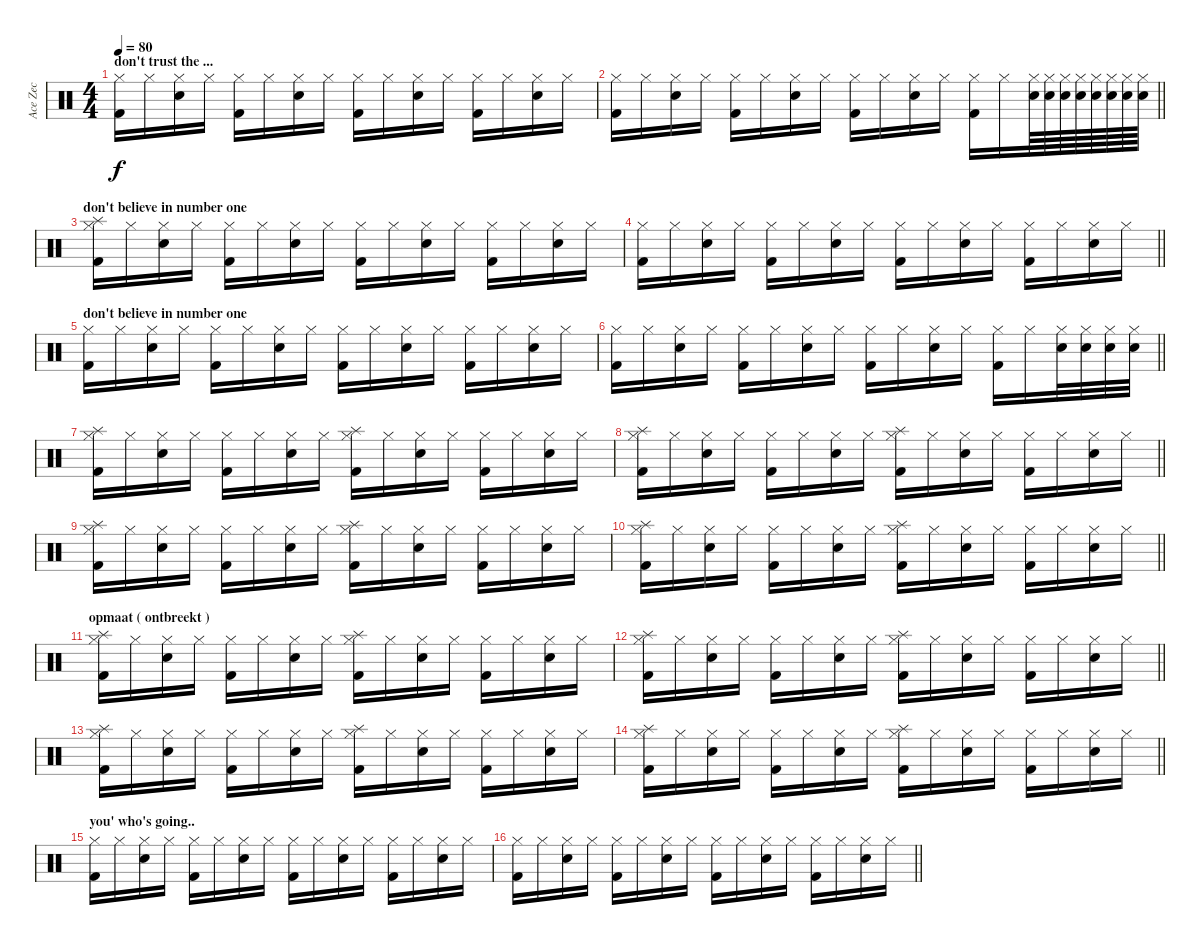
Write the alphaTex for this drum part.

\track ("Ace Zec" "Ace Zec") {instrument percussion}
\staff {score}
\articulation defaults
\ts (4 4)
\section ("" "don't trust the ...")
\tempo 80
\clef neutral
\ks c
("Hi-Hat (closed)" "Kick (hit) 2").16{dy f} "Hi-Hat (closed)".16 ("Hi-Hat (closed)" "Snare (hit) 2").16 "Hi-Hat (closed)".16 ("Hi-Hat (closed)" "Kick (hit) 2").16 "Hi-Hat (closed)".16 ("Hi-Hat (closed)" "Snare (hit) 2").16 "Hi-Hat (closed)".16 ("Hi-Hat (closed)" "Kick (hit) 2").16 "Hi-Hat (closed)".16 ("Hi-Hat (closed)" "Snare (hit) 2").16 "Hi-Hat (closed)".16 ("Hi-Hat (closed)" "Kick (hit) 2").16 "Hi-Hat (closed)".16 ("Hi-Hat (closed)" "Snare (hit) 2").16 "Hi-Hat (closed)".16 |
\barLineRight lightlight
("Hi-Hat (closed)" "Kick (hit) 2").16 "Hi-Hat (closed)".16 ("Hi-Hat (closed)" "Snare (hit) 2").16 "Hi-Hat (closed)".16 ("Hi-Hat (closed)" "Kick (hit) 2").16 "Hi-Hat (closed)".16 ("Hi-Hat (closed)" "Snare (hit) 2").16 "Hi-Hat (closed)".16 ("Hi-Hat (closed)" "Kick (hit) 2").16 "Hi-Hat (closed)".16 ("Hi-Hat (closed)" "Snare (hit) 2").16 "Hi-Hat (closed)".16 ("Hi-Hat (closed)" "Kick (hit) 2").16 "Hi-Hat (closed)".16 ("Hi-Hat (closed)" "Snare (hit) 2").64 ("Hi-Hat (closed)" "Snare (hit) 2").64 ("Hi-Hat (closed)" "Snare (hit) 2").64 ("Hi-Hat (closed)" "Snare (hit) 2").64 ("Hi-Hat (closed)" "Snare (hit) 2").64 ("Hi-Hat (closed)" "Snare (hit) 2").64 ("Hi-Hat (closed)" "Snare (hit) 2").64 ("Hi-Hat (closed)" "Snare (hit) 2").64 |
\section ("" "don't believe in number one")
("Hi-Hat (closed)" "Kick (hit) 2" "Splash (hit)").16 "Hi-Hat (closed)".16 ("Hi-Hat (closed)" "Snare (hit) 2").16 "Hi-Hat (closed)".16 ("Hi-Hat (closed)" "Kick (hit) 2").16 "Hi-Hat (closed)".16 ("Hi-Hat (closed)" "Snare (hit) 2").16 "Hi-Hat (closed)".16 ("Hi-Hat (closed)" "Kick (hit) 2").16 "Hi-Hat (closed)".16 ("Hi-Hat (closed)" "Snare (hit) 2").16 "Hi-Hat (closed)".16 ("Hi-Hat (closed)" "Kick (hit) 2").16 "Hi-Hat (closed)".16 ("Hi-Hat (closed)" "Snare (hit) 2").16 "Hi-Hat (closed)".16 |
\barLineRight lightlight
("Hi-Hat (closed)" "Kick (hit) 2").16 "Hi-Hat (closed)".16 ("Hi-Hat (closed)" "Snare (hit) 2").16 "Hi-Hat (closed)".16 ("Hi-Hat (closed)" "Kick (hit) 2").16 "Hi-Hat (closed)".16 ("Hi-Hat (closed)" "Snare (hit) 2").16 "Hi-Hat (closed)".16 ("Hi-Hat (closed)" "Kick (hit) 2").16 "Hi-Hat (closed)".16 ("Hi-Hat (closed)" "Snare (hit) 2").16 "Hi-Hat (closed)".16 ("Hi-Hat (closed)" "Kick (hit) 2").16 "Hi-Hat (closed)".16 ("Hi-Hat (closed)" "Snare (hit) 2").16 "Hi-Hat (closed)".16 |
\section ("" "don't believe in number one")
("Hi-Hat (closed)" "Kick (hit) 2").16 "Hi-Hat (closed)".16 ("Hi-Hat (closed)" "Snare (hit) 2").16 "Hi-Hat (closed)".16 ("Hi-Hat (closed)" "Kick (hit) 2").16 "Hi-Hat (closed)".16 ("Hi-Hat (closed)" "Snare (hit) 2").16 "Hi-Hat (closed)".16 ("Hi-Hat (closed)" "Kick (hit) 2").16 "Hi-Hat (closed)".16 ("Hi-Hat (closed)" "Snare (hit) 2").16 "Hi-Hat (closed)".16 ("Hi-Hat (closed)" "Kick (hit) 2").16 "Hi-Hat (closed)".16 ("Hi-Hat (closed)" "Snare (hit) 2").16 "Hi-Hat (closed)".16 |
\barLineRight lightlight
("Hi-Hat (closed)" "Kick (hit) 2").16 "Hi-Hat (closed)".16 ("Hi-Hat (closed)" "Snare (hit) 2").16 "Hi-Hat (closed)".16 ("Hi-Hat (closed)" "Kick (hit) 2").16 "Hi-Hat (closed)".16 ("Hi-Hat (closed)" "Snare (hit) 2").16 "Hi-Hat (closed)".16 ("Hi-Hat (closed)" "Kick (hit) 2").16 "Hi-Hat (closed)".16 ("Hi-Hat (closed)" "Snare (hit) 2").16 "Hi-Hat (closed)".16 ("Hi-Hat (closed)" "Kick (hit) 2").16 "Hi-Hat (closed)".16 ("Hi-Hat (closed)" "Snare (hit) 2").32 ("Hi-Hat (closed)" "Snare (hit) 2").32 ("Hi-Hat (closed)" "Snare (hit) 2").32 ("Hi-Hat (closed)" "Snare (hit) 2").32 |
("Hi-Hat (closed)" "Kick (hit) 2" "Splash (hit)").16 "Hi-Hat (closed)".16 ("Hi-Hat (closed)" "Snare (hit) 2").16 "Hi-Hat (closed)".16 ("Hi-Hat (closed)" "Kick (hit) 2").16 "Hi-Hat (closed)".16 ("Hi-Hat (closed)" "Snare (hit) 2").16 "Hi-Hat (closed)".16 ("Hi-Hat (closed)" "Kick (hit) 2" "Splash (hit)").16 "Hi-Hat (closed)".16 ("Hi-Hat (closed)" "Snare (hit) 2").16 "Hi-Hat (closed)".16 ("Hi-Hat (closed)" "Kick (hit) 2").16 "Hi-Hat (closed)".16 ("Hi-Hat (closed)" "Snare (hit) 2").16 "Hi-Hat (closed)".16 |
\barLineRight lightlight
("Hi-Hat (closed)" "Kick (hit) 2" "Splash (hit)").16 "Hi-Hat (closed)".16 ("Hi-Hat (closed)" "Snare (hit) 2").16 "Hi-Hat (closed)".16 ("Hi-Hat (closed)" "Kick (hit) 2").16 "Hi-Hat (closed)".16 ("Hi-Hat (closed)" "Snare (hit) 2").16 "Hi-Hat (closed)".16 ("Hi-Hat (closed)" "Kick (hit) 2" "Splash (hit)").16 "Hi-Hat (closed)".16 ("Hi-Hat (closed)" "Snare (hit) 2").16 "Hi-Hat (closed)".16 ("Hi-Hat (closed)" "Kick (hit) 2").16 "Hi-Hat (closed)".16 ("Hi-Hat (closed)" "Snare (hit) 2").16 "Hi-Hat (closed)".16 |
("Hi-Hat (closed)" "Kick (hit) 2" "Splash (hit)").16 "Hi-Hat (closed)".16 ("Hi-Hat (closed)" "Snare (hit) 2").16 "Hi-Hat (closed)".16 ("Hi-Hat (closed)" "Kick (hit) 2").16 "Hi-Hat (closed)".16 ("Hi-Hat (closed)" "Snare (hit) 2").16 "Hi-Hat (closed)".16 ("Hi-Hat (closed)" "Kick (hit) 2" "Splash (hit)").16 "Hi-Hat (closed)".16 ("Hi-Hat (closed)" "Snare (hit) 2").16 "Hi-Hat (closed)".16 ("Hi-Hat (closed)" "Kick (hit) 2").16 "Hi-Hat (closed)".16 ("Hi-Hat (closed)" "Snare (hit) 2").16 "Hi-Hat (closed)".16 |
\barLineRight lightlight
("Hi-Hat (closed)" "Kick (hit) 2" "Splash (hit)").16 "Hi-Hat (closed)".16 ("Hi-Hat (closed)" "Snare (hit) 2").16 "Hi-Hat (closed)".16 ("Hi-Hat (closed)" "Kick (hit) 2").16 "Hi-Hat (closed)".16 ("Hi-Hat (closed)" "Snare (hit) 2").16 "Hi-Hat (closed)".16 ("Hi-Hat (closed)" "Kick (hit) 2" "Splash (hit)").16 "Hi-Hat (closed)".16 ("Hi-Hat (closed)" "Snare (hit) 2").16 "Hi-Hat (closed)".16 ("Hi-Hat (closed)" "Kick (hit) 2").16 "Hi-Hat (closed)".16 ("Hi-Hat (closed)" "Snare (hit) 2").16 "Hi-Hat (closed)".16 |
\section ("" "opmaat ( ontbreekt )")
("Hi-Hat (closed)" "Kick (hit) 2" "Splash (hit)").16 "Hi-Hat (closed)".16 ("Hi-Hat (closed)" "Snare (hit) 2").16 "Hi-Hat (closed)".16 ("Hi-Hat (closed)" "Kick (hit) 2").16 "Hi-Hat (closed)".16 ("Hi-Hat (closed)" "Snare (hit) 2").16 "Hi-Hat (closed)".16 ("Hi-Hat (closed)" "Kick (hit) 2" "Splash (hit)").16 "Hi-Hat (closed)".16 ("Hi-Hat (closed)" "Snare (hit) 2").16 "Hi-Hat (closed)".16 ("Hi-Hat (closed)" "Kick (hit) 2").16 "Hi-Hat (closed)".16 ("Hi-Hat (closed)" "Snare (hit) 2").16 "Hi-Hat (closed)".16 |
\barLineRight lightlight
("Hi-Hat (closed)" "Kick (hit) 2" "Splash (hit)").16 "Hi-Hat (closed)".16 ("Hi-Hat (closed)" "Snare (hit) 2").16 "Hi-Hat (closed)".16 ("Hi-Hat (closed)" "Kick (hit) 2").16 "Hi-Hat (closed)".16 ("Hi-Hat (closed)" "Snare (hit) 2").16 "Hi-Hat (closed)".16 ("Hi-Hat (closed)" "Kick (hit) 2" "Splash (hit)").16 "Hi-Hat (closed)".16 ("Hi-Hat (closed)" "Snare (hit) 2").16 "Hi-Hat (closed)".16 ("Hi-Hat (closed)" "Kick (hit) 2").16 "Hi-Hat (closed)".16 ("Hi-Hat (closed)" "Snare (hit) 2").16 "Hi-Hat (closed)".16 |
("Hi-Hat (closed)" "Kick (hit) 2" "Splash (hit)").16 "Hi-Hat (closed)".16 ("Hi-Hat (closed)" "Snare (hit) 2").16 "Hi-Hat (closed)".16 ("Hi-Hat (closed)" "Kick (hit) 2").16 "Hi-Hat (closed)".16 ("Hi-Hat (closed)" "Snare (hit) 2").16 "Hi-Hat (closed)".16 ("Hi-Hat (closed)" "Kick (hit) 2" "Splash (hit)").16 "Hi-Hat (closed)".16 ("Hi-Hat (closed)" "Snare (hit) 2").16 "Hi-Hat (closed)".16 ("Hi-Hat (closed)" "Kick (hit) 2").16 "Hi-Hat (closed)".16 ("Hi-Hat (closed)" "Snare (hit) 2").16 "Hi-Hat (closed)".16 |
\barLineRight lightlight
("Hi-Hat (closed)" "Kick (hit) 2" "Splash (hit)").16 "Hi-Hat (closed)".16 ("Hi-Hat (closed)" "Snare (hit) 2").16 "Hi-Hat (closed)".16 ("Hi-Hat (closed)" "Kick (hit) 2").16 "Hi-Hat (closed)".16 ("Hi-Hat (closed)" "Snare (hit) 2").16 "Hi-Hat (closed)".16 ("Hi-Hat (closed)" "Kick (hit) 2" "Splash (hit)").16 "Hi-Hat (closed)".16 ("Hi-Hat (closed)" "Snare (hit) 2").16 "Hi-Hat (closed)".16 ("Hi-Hat (closed)" "Kick (hit) 2").16 "Hi-Hat (closed)".16 ("Hi-Hat (closed)" "Snare (hit) 2").16 "Hi-Hat (closed)".16 |
\section ("" "you' who's going..")
("Hi-Hat (closed)" "Kick (hit) 2").16 "Hi-Hat (closed)".16 ("Hi-Hat (closed)" "Snare (hit) 2").16 "Hi-Hat (closed)".16 ("Hi-Hat (closed)" "Kick (hit) 2").16 "Hi-Hat (closed)".16 ("Hi-Hat (closed)" "Snare (hit) 2").16 "Hi-Hat (closed)".16 ("Hi-Hat (closed)" "Kick (hit) 2").16 "Hi-Hat (closed)".16 ("Hi-Hat (closed)" "Snare (hit) 2").16 "Hi-Hat (closed)".16 ("Hi-Hat (closed)" "Kick (hit) 2").16 "Hi-Hat (closed)".16 ("Hi-Hat (closed)" "Snare (hit) 2").16 "Hi-Hat (closed)".16 |
\barLineRight lightlight
("Hi-Hat (closed)" "Kick (hit) 2").16 "Hi-Hat (closed)".16 ("Hi-Hat (closed)" "Snare (hit) 2").16 "Hi-Hat (closed)".16 ("Hi-Hat (closed)" "Kick (hit) 2").16 "Hi-Hat (closed)".16 ("Hi-Hat (closed)" "Snare (hit) 2").16 "Hi-Hat (closed)".16 ("Hi-Hat (closed)" "Kick (hit) 2").16 "Hi-Hat (closed)".16 ("Hi-Hat (closed)" "Snare (hit) 2").16 "Hi-Hat (closed)".16 ("Hi-Hat (closed)" "Kick (hit) 2").16 "Hi-Hat (closed)".16 ("Hi-Hat (closed)" "Snare (hit) 2").16 "Hi-Hat (closed)".16
